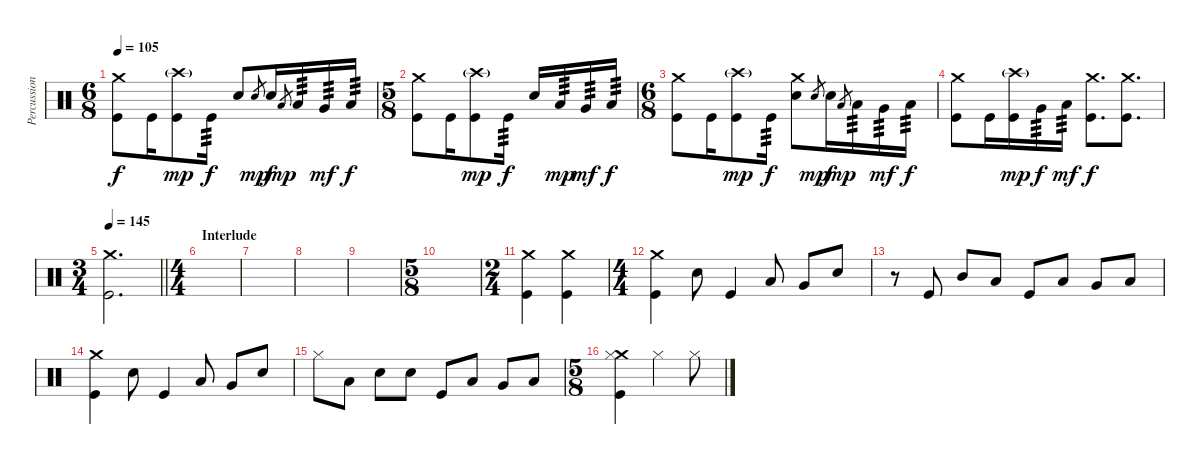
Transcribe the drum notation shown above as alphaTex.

\track ("Percussion" "Percussion") {instrument percussion}
\staff {score}
\articulation defaults
\ts (6 8)
\tempo 105
\clef neutral
\ks c
("Crash medium (hit)" "Kick (hit)").8{dy f} "Kick (hit)".16 ("Crash high (hit)"{g} "Kick (hit)").8{dy mp} "Kick (hit)".16{tp 3 dy f} "Snare (hit) 2".8 "Snare (hit) 2".8{gr dy mp} "Snare (hit) 2".16{dy f} "Low Tom (hit)".8{gr dy mp} "Low Tom (hit)".16{tp 3} "Very Low Tom (hit)".16{tp 3 dy mf} "Low Floor Tom (hit)".16{tp 3 dy f} |
\ts (5 8)
("Crash medium (hit)" "Kick (hit)").8 "Kick (hit)".16 ("Crash high (hit)"{g} "Kick (hit)").8{dy mp} "Kick (hit)".16{tp 3 dy f} "Snare (hit) 2".16 "Low Tom (hit)".16{tp 3 dy mp} "Very Low Tom (hit)".16{tp 3 dy mf} "Low Floor Tom (hit)".16{tp 3 dy f} |
\ts (6 8)
("Crash medium (hit)" "Kick (hit)").8 "Kick (hit)".16 ("Crash high (hit)"{g} "Kick (hit)").8{dy mp} "Kick (hit)".16{tp 3 dy f} ("Crash medium (hit)" "Snare (hit) 2").8 "Snare (hit) 2".8{gr dy mp} "Snare (hit) 2".16{dy f} "Low Tom (hit)".8{gr dy mp} "Low Tom (hit)".16{tp 3} "Very Low Tom (hit)".16{tp 3 dy mf} "Low Floor Tom (hit)".16{tp 3 dy f} |
("Crash medium (hit)" "Kick (hit)").8 "Kick (hit)".16 ("Crash high (hit)"{g} "Kick (hit)").16{dy mp} "Very Low Tom (hit)".16{tp 3 dy f} "Low Floor Tom (hit)".16{tp 3 dy mf} ("Crash medium (hit)" "Kick (hit)").8{d dy f} ("Crash medium (hit)" "Kick (hit)").8{d} |
\ts (3 4)
\tempo 145
\barLineRight lightlight
("Crash medium (hit)" "Kick (hit)").2{d} |
\ts (4 4)
\section ("" "Interlude")
|
|
|
|
\ts (5 8)
|
\ts (2 4)
("Crash medium (hit)" "Kick (hit)").4 ("Crash medium (hit)" "Kick (hit)").4 |
\ts (4 4)
("Crash medium (hit)" "Kick (hit)").4 "Snare (hit) 2".8 "Kick (hit)".4 "Low Tom (hit)".8 "Very Low Tom (hit)".8 "Snare (hit) 2".8 |
r.8 "Kick (hit)".8 "Mid Tom (hit)".8 "Low Tom (hit)".8 "Kick (hit)".8 "Low Tom (hit)".8 "Very Low Tom (hit)".8 "Low Floor Tom (hit)".8 |
("Crash medium (hit)" "Kick (hit)").4 "Snare (hit) 2".8 "Kick (hit)".4 "Low Tom (hit)".8 "Very Low Tom (hit)".8 "Snare (hit) 2".8 |
"Hi-Hat (closed)".8 "Low Tom (hit)".8 "Snare (hit) 2".8 "Snare (hit) 2".8 "Kick (hit)".8 "Low Tom (hit)".8 "Very Low Tom (hit)".8 "Low Floor Tom (hit)".8 |
\ts (5 8)
("Crash medium (hit)" "Hi-Hat (closed)" "Kick (hit)").4 "Hi-Hat (closed)".4 "Hi-Hat (closed)".8
